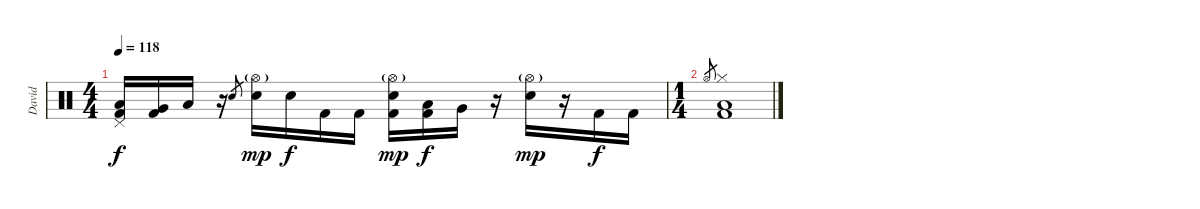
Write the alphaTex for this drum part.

\track ("David" "David") {instrument percussion}
\staff {score}
\articulation defaults
\ts (4 4)
\tempo 118
\clef neutral
\ks c
("Pedal Hi-Hat (hit)" "Low Tom (hit)" "Kick (hit) 2").16{dy f} ("Very Low Tom (hit)" "Kick (hit) 2").16 "Low Floor Tom (hit)".16 r.16 "Electric Snare (hit)".8{gr} ("Hi-Hat (open)"{g} "Electric Snare (hit)").16{dy mp} "Electric Snare (hit)".16{dy f} "Kick (hit) 2".16 "Kick (hit) 2".16 ("Hi-Hat (open)"{g} "Electric Snare (hit)" "Kick (hit) 2").16{dy mp} ("Low Tom (hit)" "Kick (hit) 2").16{dy f} "Very Low Tom (hit)".16 r.16 ("Hi-Hat (open)"{g} "Electric Snare (hit)").16{dy mp} r.16 "Kick (hit) 2".16{dy f} "Kick (hit) 2".16 |
\ts (1 4)
"Hi-Hat (open)".8{gr} ("Hi-Hat (closed)" "Low Floor Tom (hit)" "Kick (hit) 2").1
